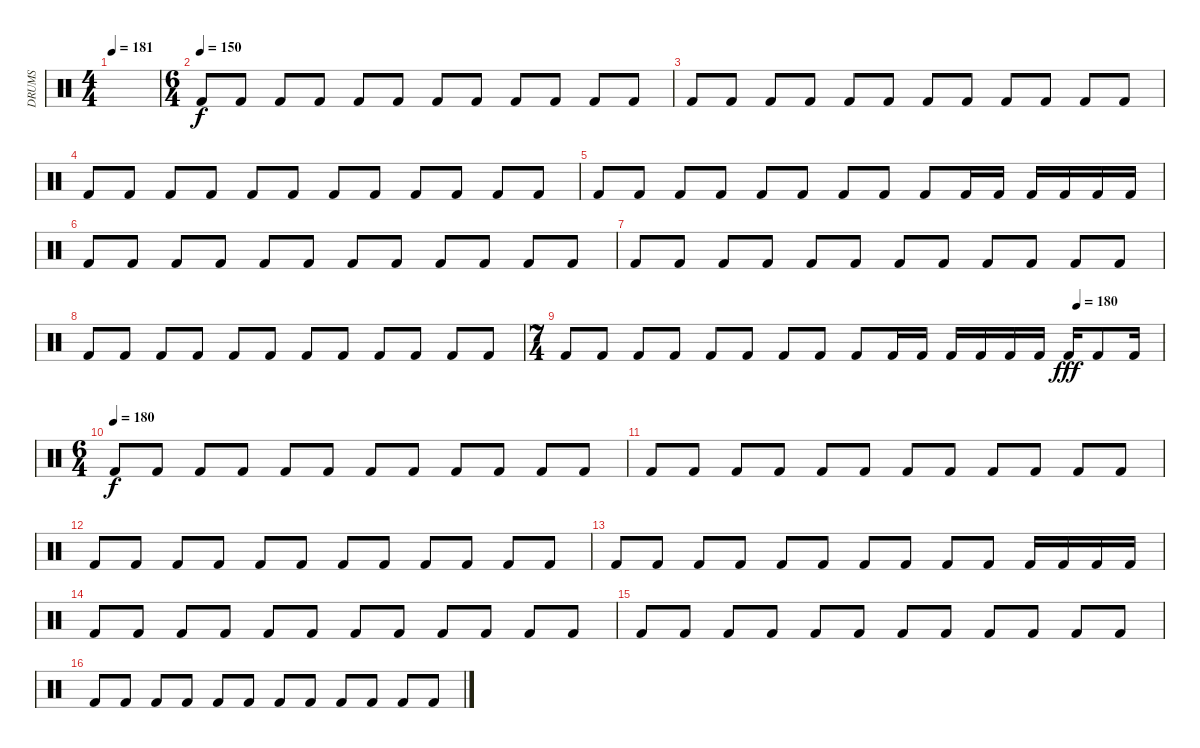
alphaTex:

\track ("DRUMS " "DRUMS ") {instrument percussion}
\staff {score}
\articulation defaults
\ts (4 4)
\tempo 181
\clef neutral
\ks c
|
\ts (6 4)
\tempo (150)
"Kick (hit) 2".8 "Kick (hit) 2".8 "Kick (hit) 2".8 "Kick (hit) 2".8 "Kick (hit) 2".8 "Kick (hit) 2".8 "Kick (hit) 2".8 "Kick (hit) 2".8 "Kick (hit) 2".8 "Kick (hit) 2".8 "Kick (hit) 2".8 "Kick (hit) 2".8 |
"Kick (hit) 2".8 "Kick (hit) 2".8 "Kick (hit) 2".8 "Kick (hit) 2".8 "Kick (hit) 2".8 "Kick (hit) 2".8 "Kick (hit) 2".8 "Kick (hit) 2".8 "Kick (hit) 2".8 "Kick (hit) 2".8 "Kick (hit) 2".8 "Kick (hit) 2".8 |
"Kick (hit) 2".8 "Kick (hit) 2".8 "Kick (hit) 2".8 "Kick (hit) 2".8 "Kick (hit) 2".8 "Kick (hit) 2".8 "Kick (hit) 2".8 "Kick (hit) 2".8 "Kick (hit) 2".8 "Kick (hit) 2".8 "Kick (hit) 2".8 "Kick (hit) 2".8 |
"Kick (hit) 2".8 "Kick (hit) 2".8 "Kick (hit) 2".8 "Kick (hit) 2".8 "Kick (hit) 2".8 "Kick (hit) 2".8 "Kick (hit) 2".8 "Kick (hit) 2".8 "Kick (hit) 2".8 "Kick (hit) 2".16 "Kick (hit) 2".16 "Kick (hit) 2".16 "Kick (hit) 2".16 "Kick (hit) 2".16 "Kick (hit) 2".16 |
"Kick (hit) 2".8 "Kick (hit) 2".8 "Kick (hit) 2".8 "Kick (hit) 2".8 "Kick (hit) 2".8 "Kick (hit) 2".8 "Kick (hit) 2".8 "Kick (hit) 2".8 "Kick (hit) 2".8 "Kick (hit) 2".8 "Kick (hit) 2".8 "Kick (hit) 2".8 |
"Kick (hit) 2".8 "Kick (hit) 2".8 "Kick (hit) 2".8 "Kick (hit) 2".8 "Kick (hit) 2".8 "Kick (hit) 2".8 "Kick (hit) 2".8 "Kick (hit) 2".8 "Kick (hit) 2".8 "Kick (hit) 2".8 "Kick (hit) 2".8 "Kick (hit) 2".8 |
"Kick (hit) 2".8 "Kick (hit) 2".8 "Kick (hit) 2".8 "Kick (hit) 2".8 "Kick (hit) 2".8 "Kick (hit) 2".8 "Kick (hit) 2".8 "Kick (hit) 2".8 "Kick (hit) 2".8 "Kick (hit) 2".8 "Kick (hit) 2".8 "Kick (hit) 2".8 |
\ts (7 4)
\tempo (180 0.8571428571428571)
"Kick (hit) 2".8 "Kick (hit) 2".8 "Kick (hit) 2".8 "Kick (hit) 2".8 "Kick (hit) 2".8 "Kick (hit) 2".8 "Kick (hit) 2".8 "Kick (hit) 2".8 "Kick (hit) 2".8 "Kick (hit) 2".16 "Kick (hit) 2".16 "Kick (hit) 2".16 "Kick (hit) 2".16 "Kick (hit) 2".16 "Kick (hit) 2".16 "Kick (hit) 2".16{dy fff} "Kick (hit) 2".8 "Kick (hit) 2".16 |
\ts (6 4)
\tempo (180)
"Kick (hit) 2".8{dy f} "Kick (hit) 2".8 "Kick (hit) 2".8 "Kick (hit) 2".8 "Kick (hit) 2".8 "Kick (hit) 2".8 "Kick (hit) 2".8 "Kick (hit) 2".8 "Kick (hit) 2".8 "Kick (hit) 2".8 "Kick (hit) 2".8 "Kick (hit) 2".8 |
"Kick (hit) 2".8 "Kick (hit) 2".8 "Kick (hit) 2".8 "Kick (hit) 2".8 "Kick (hit) 2".8 "Kick (hit) 2".8 "Kick (hit) 2".8 "Kick (hit) 2".8 "Kick (hit) 2".8 "Kick (hit) 2".8 "Kick (hit) 2".8 "Kick (hit) 2".8 |
"Kick (hit) 2".8 "Kick (hit) 2".8 "Kick (hit) 2".8 "Kick (hit) 2".8 "Kick (hit) 2".8 "Kick (hit) 2".8 "Kick (hit) 2".8 "Kick (hit) 2".8 "Kick (hit) 2".8 "Kick (hit) 2".8 "Kick (hit) 2".8 "Kick (hit) 2".8 |
"Kick (hit) 2".8 "Kick (hit) 2".8 "Kick (hit) 2".8 "Kick (hit) 2".8 "Kick (hit) 2".8 "Kick (hit) 2".8 "Kick (hit) 2".8 "Kick (hit) 2".8 "Kick (hit) 2".8 "Kick (hit) 2".8 "Kick (hit) 2".16 "Kick (hit) 2".16 "Kick (hit) 2".16 "Kick (hit) 2".16 |
"Kick (hit) 2".8 "Kick (hit) 2".8 "Kick (hit) 2".8 "Kick (hit) 2".8 "Kick (hit) 2".8 "Kick (hit) 2".8 "Kick (hit) 2".8 "Kick (hit) 2".8 "Kick (hit) 2".8 "Kick (hit) 2".8 "Kick (hit) 2".8 "Kick (hit) 2".8 |
"Kick (hit) 2".8 "Kick (hit) 2".8 "Kick (hit) 2".8 "Kick (hit) 2".8 "Kick (hit) 2".8 "Kick (hit) 2".8 "Kick (hit) 2".8 "Kick (hit) 2".8 "Kick (hit) 2".8 "Kick (hit) 2".8 "Kick (hit) 2".8 "Kick (hit) 2".8 |
"Kick (hit) 2".8 "Kick (hit) 2".8 "Kick (hit) 2".8 "Kick (hit) 2".8 "Kick (hit) 2".8 "Kick (hit) 2".8 "Kick (hit) 2".8 "Kick (hit) 2".8 "Kick (hit) 2".8 "Kick (hit) 2".8 "Kick (hit) 2".8 "Kick (hit) 2".8
